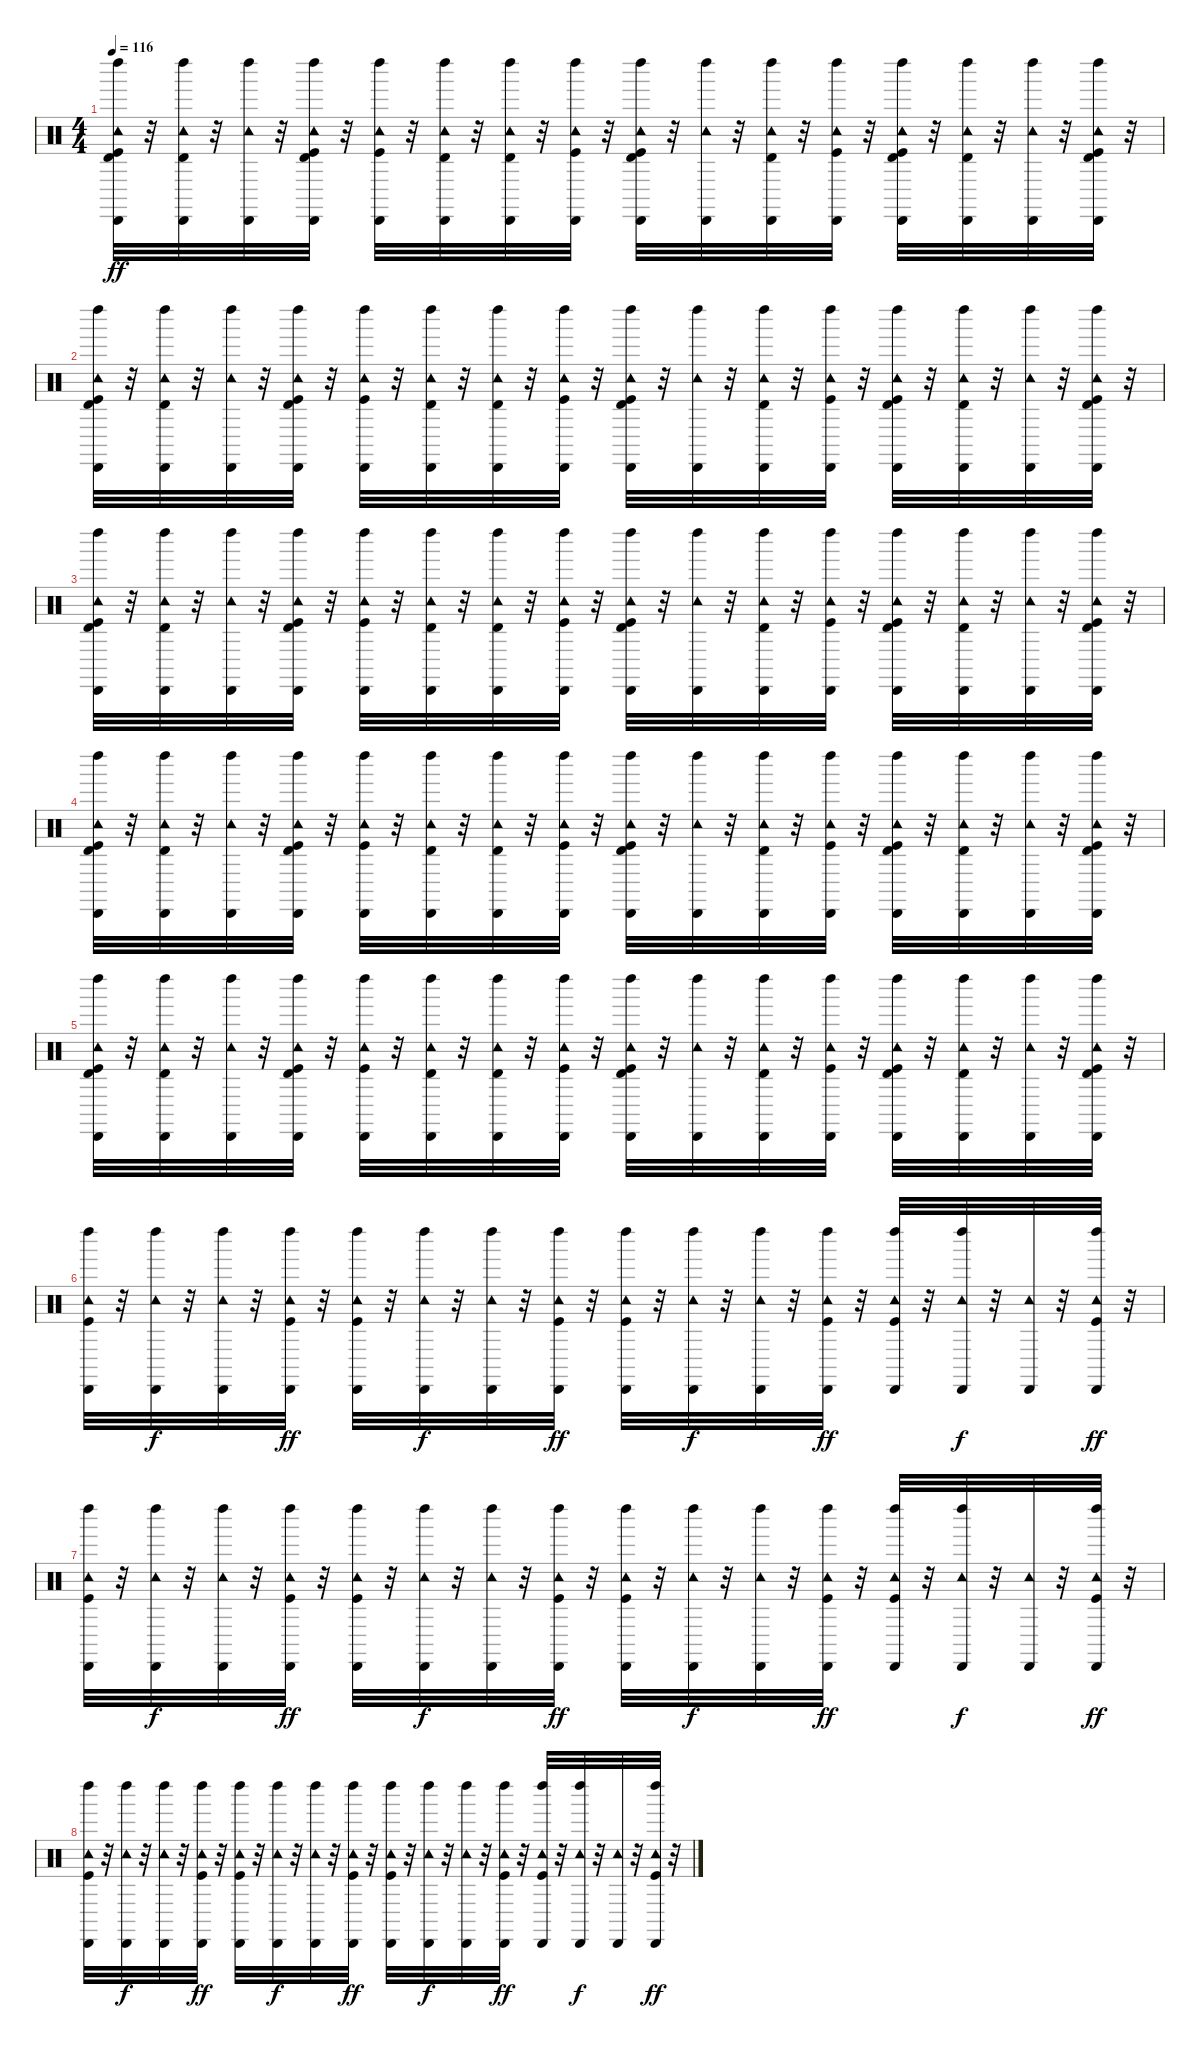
\track "" {instrument percussion}
\staff {score}
\articulation defaults
\ts (4 4)
\tempo 116
\clef neutral
\ks c
("Kick (hit)" "Tambourine (hit)" "Timbale high (hit)" "Cabasa (hit)" "Left Maraca (hit)").32{dy ff} r.32 ("Tambourine (hit)" "Timbale high (hit)" "Cabasa (hit)" "Left Maraca (hit)").32 r.32 ("Tambourine (hit)" "Cabasa (hit)" "Left Maraca (hit)").32 r.32 ("Kick (hit)" "Tambourine (hit)" "Timbale high (hit)" "Cabasa (hit)" "Left Maraca (hit)").32 r.32 ("Kick (hit)" "Tambourine (hit)" "Cabasa (hit)" "Left Maraca (hit)").32 r.32 ("Tambourine (hit)" "Timbale high (hit)" "Cabasa (hit)" "Left Maraca (hit)").32 r.32 ("Tambourine (hit)" "Timbale high (hit)" "Cabasa (hit)" "Left Maraca (hit)").32 r.32 ("Kick (hit)" "Tambourine (hit)" "Cabasa (hit)" "Left Maraca (hit)").32 r.32 ("Kick (hit)" "Tambourine (hit)" "Timbale high (hit)" "Cabasa (hit)" "Left Maraca (hit)").32 r.32 ("Tambourine (hit)" "Cabasa (hit)" "Left Maraca (hit)").32 r.32 ("Tambourine (hit)" "Timbale high (hit)" "Cabasa (hit)" "Left Maraca (hit)").32 r.32 ("Kick (hit)" "Tambourine (hit)" "Cabasa (hit)" "Left Maraca (hit)").32 r.32 ("Kick (hit)" "Tambourine (hit)" "Timbale high (hit)" "Cabasa (hit)" "Left Maraca (hit)").32 r.32 ("Tambourine (hit)" "Timbale high (hit)" "Cabasa (hit)" "Left Maraca (hit)").32 r.32 ("Tambourine (hit)" "Cabasa (hit)" "Left Maraca (hit)").32 r.32 ("Kick (hit)" "Tambourine (hit)" "Timbale high (hit)" "Cabasa (hit)" "Left Maraca (hit)").32 r.32 |
("Kick (hit)" "Tambourine (hit)" "Timbale high (hit)" "Cabasa (hit)" "Left Maraca (hit)").32 r.32 ("Tambourine (hit)" "Timbale high (hit)" "Cabasa (hit)" "Left Maraca (hit)").32 r.32 ("Tambourine (hit)" "Cabasa (hit)" "Left Maraca (hit)").32 r.32 ("Kick (hit)" "Tambourine (hit)" "Timbale high (hit)" "Cabasa (hit)" "Left Maraca (hit)").32 r.32 ("Kick (hit)" "Tambourine (hit)" "Cabasa (hit)" "Left Maraca (hit)").32 r.32 ("Tambourine (hit)" "Timbale high (hit)" "Cabasa (hit)" "Left Maraca (hit)").32 r.32 ("Tambourine (hit)" "Timbale high (hit)" "Cabasa (hit)" "Left Maraca (hit)").32 r.32 ("Kick (hit)" "Tambourine (hit)" "Cabasa (hit)" "Left Maraca (hit)").32 r.32 ("Kick (hit)" "Tambourine (hit)" "Timbale high (hit)" "Cabasa (hit)" "Left Maraca (hit)").32 r.32 ("Tambourine (hit)" "Cabasa (hit)" "Left Maraca (hit)").32 r.32 ("Tambourine (hit)" "Timbale high (hit)" "Cabasa (hit)" "Left Maraca (hit)").32 r.32 ("Kick (hit)" "Tambourine (hit)" "Cabasa (hit)" "Left Maraca (hit)").32 r.32 ("Kick (hit)" "Tambourine (hit)" "Timbale high (hit)" "Cabasa (hit)" "Left Maraca (hit)").32 r.32 ("Tambourine (hit)" "Timbale high (hit)" "Cabasa (hit)" "Left Maraca (hit)").32 r.32 ("Tambourine (hit)" "Cabasa (hit)" "Left Maraca (hit)").32 r.32 ("Kick (hit)" "Tambourine (hit)" "Timbale high (hit)" "Cabasa (hit)" "Left Maraca (hit)").32 r.32 |
("Kick (hit)" "Tambourine (hit)" "Timbale high (hit)" "Cabasa (hit)" "Left Maraca (hit)").32 r.32 ("Tambourine (hit)" "Timbale high (hit)" "Cabasa (hit)" "Left Maraca (hit)").32 r.32 ("Tambourine (hit)" "Cabasa (hit)" "Left Maraca (hit)").32 r.32 ("Kick (hit)" "Tambourine (hit)" "Timbale high (hit)" "Cabasa (hit)" "Left Maraca (hit)").32 r.32 ("Kick (hit)" "Tambourine (hit)" "Cabasa (hit)" "Left Maraca (hit)").32 r.32 ("Tambourine (hit)" "Timbale high (hit)" "Cabasa (hit)" "Left Maraca (hit)").32 r.32 ("Tambourine (hit)" "Timbale high (hit)" "Cabasa (hit)" "Left Maraca (hit)").32 r.32 ("Kick (hit)" "Tambourine (hit)" "Cabasa (hit)" "Left Maraca (hit)").32 r.32 ("Kick (hit)" "Tambourine (hit)" "Timbale high (hit)" "Cabasa (hit)" "Left Maraca (hit)").32 r.32 ("Tambourine (hit)" "Cabasa (hit)" "Left Maraca (hit)").32 r.32 ("Tambourine (hit)" "Timbale high (hit)" "Cabasa (hit)" "Left Maraca (hit)").32 r.32 ("Kick (hit)" "Tambourine (hit)" "Cabasa (hit)" "Left Maraca (hit)").32 r.32 ("Kick (hit)" "Tambourine (hit)" "Timbale high (hit)" "Cabasa (hit)" "Left Maraca (hit)").32 r.32 ("Tambourine (hit)" "Timbale high (hit)" "Cabasa (hit)" "Left Maraca (hit)").32 r.32 ("Tambourine (hit)" "Cabasa (hit)" "Left Maraca (hit)").32 r.32 ("Kick (hit)" "Tambourine (hit)" "Timbale high (hit)" "Cabasa (hit)" "Left Maraca (hit)").32 r.32 |
("Kick (hit)" "Tambourine (hit)" "Timbale high (hit)" "Cabasa (hit)" "Left Maraca (hit)").32 r.32 ("Tambourine (hit)" "Timbale high (hit)" "Cabasa (hit)" "Left Maraca (hit)").32 r.32 ("Tambourine (hit)" "Cabasa (hit)" "Left Maraca (hit)").32 r.32 ("Kick (hit)" "Tambourine (hit)" "Timbale high (hit)" "Cabasa (hit)" "Left Maraca (hit)").32 r.32 ("Kick (hit)" "Tambourine (hit)" "Cabasa (hit)" "Left Maraca (hit)").32 r.32 ("Tambourine (hit)" "Timbale high (hit)" "Cabasa (hit)" "Left Maraca (hit)").32 r.32 ("Tambourine (hit)" "Timbale high (hit)" "Cabasa (hit)" "Left Maraca (hit)").32 r.32 ("Kick (hit)" "Tambourine (hit)" "Cabasa (hit)" "Left Maraca (hit)").32 r.32 ("Kick (hit)" "Tambourine (hit)" "Timbale high (hit)" "Cabasa (hit)" "Left Maraca (hit)").32 r.32 ("Tambourine (hit)" "Cabasa (hit)" "Left Maraca (hit)").32 r.32 ("Tambourine (hit)" "Timbale high (hit)" "Cabasa (hit)" "Left Maraca (hit)").32 r.32 ("Kick (hit)" "Tambourine (hit)" "Cabasa (hit)" "Left Maraca (hit)").32 r.32 ("Kick (hit)" "Tambourine (hit)" "Timbale high (hit)" "Cabasa (hit)" "Left Maraca (hit)").32 r.32 ("Tambourine (hit)" "Timbale high (hit)" "Cabasa (hit)" "Left Maraca (hit)").32 r.32 ("Tambourine (hit)" "Cabasa (hit)" "Left Maraca (hit)").32 r.32 ("Kick (hit)" "Tambourine (hit)" "Timbale high (hit)" "Cabasa (hit)" "Left Maraca (hit)").32 r.32 |
("Kick (hit)" "Tambourine (hit)" "Timbale high (hit)" "Cabasa (hit)" "Left Maraca (hit)").32 r.32 ("Tambourine (hit)" "Timbale high (hit)" "Cabasa (hit)" "Left Maraca (hit)").32 r.32 ("Tambourine (hit)" "Cabasa (hit)" "Left Maraca (hit)").32 r.32 ("Kick (hit)" "Tambourine (hit)" "Timbale high (hit)" "Cabasa (hit)" "Left Maraca (hit)").32 r.32 ("Kick (hit)" "Tambourine (hit)" "Cabasa (hit)" "Left Maraca (hit)").32 r.32 ("Tambourine (hit)" "Timbale high (hit)" "Cabasa (hit)" "Left Maraca (hit)").32 r.32 ("Tambourine (hit)" "Timbale high (hit)" "Cabasa (hit)" "Left Maraca (hit)").32 r.32 ("Kick (hit)" "Tambourine (hit)" "Cabasa (hit)" "Left Maraca (hit)").32 r.32 ("Kick (hit)" "Tambourine (hit)" "Timbale high (hit)" "Cabasa (hit)" "Left Maraca (hit)").32 r.32 ("Tambourine (hit)" "Cabasa (hit)" "Left Maraca (hit)").32 r.32 ("Tambourine (hit)" "Timbale high (hit)" "Cabasa (hit)" "Left Maraca (hit)").32 r.32 ("Kick (hit)" "Tambourine (hit)" "Cabasa (hit)" "Left Maraca (hit)").32 r.32 ("Kick (hit)" "Tambourine (hit)" "Timbale high (hit)" "Cabasa (hit)" "Left Maraca (hit)").32 r.32 ("Tambourine (hit)" "Timbale high (hit)" "Cabasa (hit)" "Left Maraca (hit)").32 r.32 ("Tambourine (hit)" "Cabasa (hit)" "Left Maraca (hit)").32 r.32 ("Kick (hit)" "Tambourine (hit)" "Timbale high (hit)" "Cabasa (hit)" "Left Maraca (hit)").32 r.32 |
("Kick (hit)" "Tambourine (hit)" "Cabasa (hit)" "Left Maraca (hit)").32 r.32 ("Tambourine (hit)" "Cabasa (hit)" "Left Maraca (hit)").32{dy f} r.32 ("Tambourine (hit)" "Cabasa (hit)" "Left Maraca (hit)").32 r.32 ("Kick (hit)" "Tambourine (hit)" "Cabasa (hit)" "Left Maraca (hit)").32{dy ff} r.32 ("Kick (hit)" "Tambourine (hit)" "Cabasa (hit)" "Left Maraca (hit)").32 r.32 ("Tambourine (hit)" "Cabasa (hit)" "Left Maraca (hit)").32{dy f} r.32 ("Tambourine (hit)" "Cabasa (hit)" "Left Maraca (hit)").32 r.32 ("Kick (hit)" "Tambourine (hit)" "Cabasa (hit)" "Left Maraca (hit)").32{dy ff} r.32 ("Kick (hit)" "Tambourine (hit)" "Cabasa (hit)" "Left Maraca (hit)").32 r.32 ("Tambourine (hit)" "Cabasa (hit)" "Left Maraca (hit)").32{dy f} r.32 ("Tambourine (hit)" "Cabasa (hit)" "Left Maraca (hit)").32 r.32 ("Kick (hit)" "Tambourine (hit)" "Cabasa (hit)" "Left Maraca (hit)").32{dy ff} r.32 ("Kick (hit)" "Tambourine (hit)" "Cabasa (hit)" "Left Maraca (hit)").32 r.32 ("Tambourine (hit)" "Cabasa (hit)" "Left Maraca (hit)").32{dy f} r.32 ("Tambourine (hit)" "Cabasa (hit)").32 r.32 ("Kick (hit)" "Tambourine (hit)" "Cabasa (hit)" "Left Maraca (hit)").32{dy ff} r.32 |
("Kick (hit)" "Tambourine (hit)" "Cabasa (hit)" "Left Maraca (hit)").32 r.32 ("Tambourine (hit)" "Cabasa (hit)" "Left Maraca (hit)").32{dy f} r.32 ("Tambourine (hit)" "Cabasa (hit)" "Left Maraca (hit)").32 r.32 ("Kick (hit)" "Tambourine (hit)" "Cabasa (hit)" "Left Maraca (hit)").32{dy ff} r.32 ("Kick (hit)" "Tambourine (hit)" "Cabasa (hit)" "Left Maraca (hit)").32 r.32 ("Tambourine (hit)" "Cabasa (hit)" "Left Maraca (hit)").32{dy f} r.32 ("Tambourine (hit)" "Cabasa (hit)" "Left Maraca (hit)").32 r.32 ("Kick (hit)" "Tambourine (hit)" "Cabasa (hit)" "Left Maraca (hit)").32{dy ff} r.32 ("Kick (hit)" "Tambourine (hit)" "Cabasa (hit)" "Left Maraca (hit)").32 r.32 ("Tambourine (hit)" "Cabasa (hit)" "Left Maraca (hit)").32{dy f} r.32 ("Tambourine (hit)" "Cabasa (hit)" "Left Maraca (hit)").32 r.32 ("Kick (hit)" "Tambourine (hit)" "Cabasa (hit)" "Left Maraca (hit)").32{dy ff} r.32 ("Kick (hit)" "Tambourine (hit)" "Cabasa (hit)" "Left Maraca (hit)").32 r.32 ("Tambourine (hit)" "Cabasa (hit)" "Left Maraca (hit)").32{dy f} r.32 ("Tambourine (hit)" "Cabasa (hit)").32 r.32 ("Kick (hit)" "Tambourine (hit)" "Cabasa (hit)" "Left Maraca (hit)").32{dy ff} r.32 |
("Kick (hit)" "Tambourine (hit)" "Cabasa (hit)" "Left Maraca (hit)").32 r.32 ("Tambourine (hit)" "Cabasa (hit)" "Left Maraca (hit)").32{dy f} r.32 ("Tambourine (hit)" "Cabasa (hit)" "Left Maraca (hit)").32 r.32 ("Kick (hit)" "Tambourine (hit)" "Cabasa (hit)" "Left Maraca (hit)").32{dy ff} r.32 ("Kick (hit)" "Tambourine (hit)" "Cabasa (hit)" "Left Maraca (hit)").32 r.32 ("Tambourine (hit)" "Cabasa (hit)" "Left Maraca (hit)").32{dy f} r.32 ("Tambourine (hit)" "Cabasa (hit)" "Left Maraca (hit)").32 r.32 ("Kick (hit)" "Tambourine (hit)" "Cabasa (hit)" "Left Maraca (hit)").32{dy ff} r.32 ("Kick (hit)" "Tambourine (hit)" "Cabasa (hit)" "Left Maraca (hit)").32 r.32 ("Tambourine (hit)" "Cabasa (hit)" "Left Maraca (hit)").32{dy f} r.32 ("Tambourine (hit)" "Cabasa (hit)" "Left Maraca (hit)").32 r.32 ("Kick (hit)" "Tambourine (hit)" "Cabasa (hit)" "Left Maraca (hit)").32{dy ff} r.32 ("Kick (hit)" "Tambourine (hit)" "Cabasa (hit)" "Left Maraca (hit)").32 r.32 ("Tambourine (hit)" "Cabasa (hit)" "Left Maraca (hit)").32{dy f} r.32 ("Tambourine (hit)" "Cabasa (hit)").32 r.32 ("Kick (hit)" "Tambourine (hit)" "Cabasa (hit)" "Left Maraca (hit)").32{dy ff} r.32
